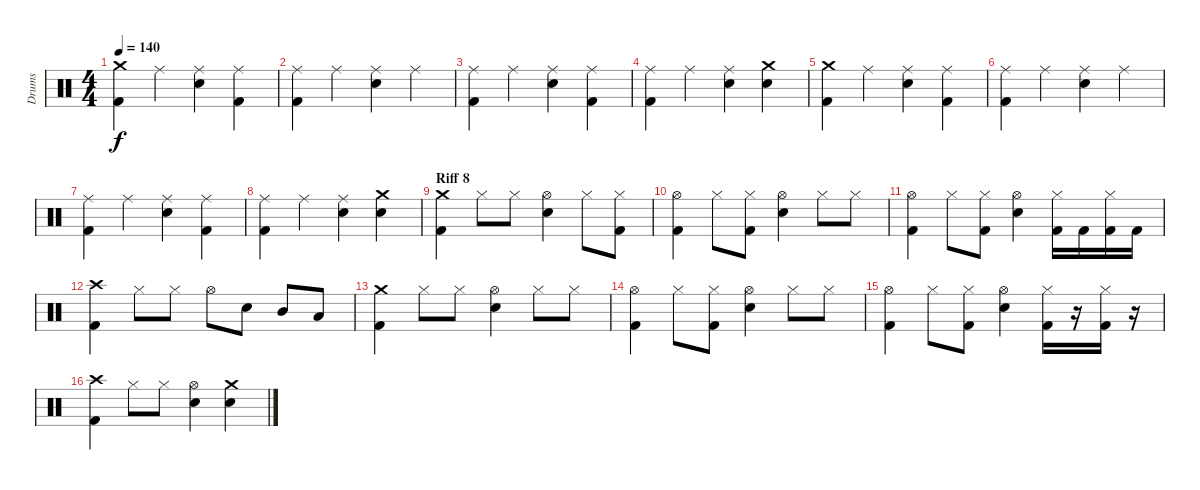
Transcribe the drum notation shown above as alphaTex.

\track ("Drums" "Drums") {instrument percussion}
\staff {score}
\articulation defaults
\ts (4 4)
\tempo 140
\clef neutral
\ks c
("Crash medium (hit)" "Kick (hit) 2").4{dy f} "Ride (middle)".4 ("Ride (middle)" "Electric Snare (hit)").4 ("Ride (middle)" "Kick (hit) 2").4 |
("Ride (middle)" "Kick (hit) 2").4 "Ride (middle)".4 ("Ride (middle)" "Electric Snare (hit)").4 "Ride (middle)".4 |
("Ride (middle)" "Kick (hit) 2").4 "Ride (middle)".4 ("Ride (middle)" "Electric Snare (hit)").4 ("Ride (middle)" "Kick (hit) 2").4 |
("Ride (middle)" "Kick (hit) 2").4 "Ride (middle)".4 ("Ride (middle)" "Electric Snare (hit)").4 ("Crash medium (hit)" "Electric Snare (hit)").4 |
("Crash medium (hit)" "Kick (hit) 2").4 "Ride (middle)".4 ("Ride (middle)" "Electric Snare (hit)").4 ("Ride (middle)" "Kick (hit) 2").4 |
("Ride (middle)" "Kick (hit) 2").4 "Ride (middle)".4 ("Ride (middle)" "Electric Snare (hit)").4 "Ride (middle)".4 |
("Ride (middle)" "Kick (hit) 2").4 "Ride (middle)".4 ("Ride (middle)" "Electric Snare (hit)").4 ("Ride (middle)" "Kick (hit) 2").4 |
("Ride (middle)" "Kick (hit) 2").4 "Ride (middle)".4 ("Ride (middle)" "Electric Snare (hit)").4 ("Crash medium (hit)" "Electric Snare (hit)").4 |
\section ("" "Riff 8")
("Crash medium (hit)" "Kick (hit) 2").4 "Hi-Hat (closed)".8 "Hi-Hat (closed)".8 ("Hi-Hat (open)" "Electric Snare (hit)").4 "Hi-Hat (closed)".8 ("Hi-Hat (closed)" "Kick (hit) 2").8 |
("Hi-Hat (open)" "Kick (hit) 2").4 "Hi-Hat (closed)".8 ("Hi-Hat (closed)" "Kick (hit) 2").8 ("Hi-Hat (open)" "Electric Snare (hit)").4 "Hi-Hat (closed)".8 "Hi-Hat (closed)".8 |
("Hi-Hat (open)" "Kick (hit) 2").4 "Hi-Hat (closed)".8 ("Hi-Hat (closed)" "Kick (hit) 2").8 ("Hi-Hat (open)" "Electric Snare (hit)").4 ("Hi-Hat (closed)" "Kick (hit) 2").16 "Kick (hit) 2".16 ("Hi-Hat (closed)" "Kick (hit) 2").16 "Kick (hit) 2".16 |
("Crash high (hit)" "Kick (hit) 2").4 "Hi-Hat (closed)".8 "Hi-Hat (closed)".8 "Hi-Hat (open)".8 "Electric Snare (hit)".8 "Mid Tom (hit)".8 "Low Tom (hit)".8 |
("Crash medium (hit)" "Kick (hit) 2").4 "Hi-Hat (closed)".8 "Hi-Hat (closed)".8 ("Hi-Hat (open)" "Electric Snare (hit)").4 "Hi-Hat (closed)".8 "Hi-Hat (closed)".8 |
("Hi-Hat (open)" "Kick (hit) 2").4 "Hi-Hat (closed)".8 ("Hi-Hat (closed)" "Kick (hit) 2").8 ("Hi-Hat (open)" "Electric Snare (hit)").4 "Hi-Hat (closed)".8 "Hi-Hat (closed)".8 |
("Hi-Hat (open)" "Kick (hit) 2").4 "Hi-Hat (closed)".8 ("Hi-Hat (closed)" "Kick (hit) 2").8 ("Hi-Hat (open)" "Electric Snare (hit)").4 ("Hi-Hat (closed)" "Kick (hit) 2").16 r.16 ("Hi-Hat (closed)" "Kick (hit) 2").16 r.16 |
("Crash high (hit)" "Kick (hit) 2").4 "Hi-Hat (closed)".8 "Hi-Hat (closed)".8 ("Hi-Hat (open)" "Electric Snare (hit)").4 ("Crash medium (hit)" "Electric Snare (hit)").4
